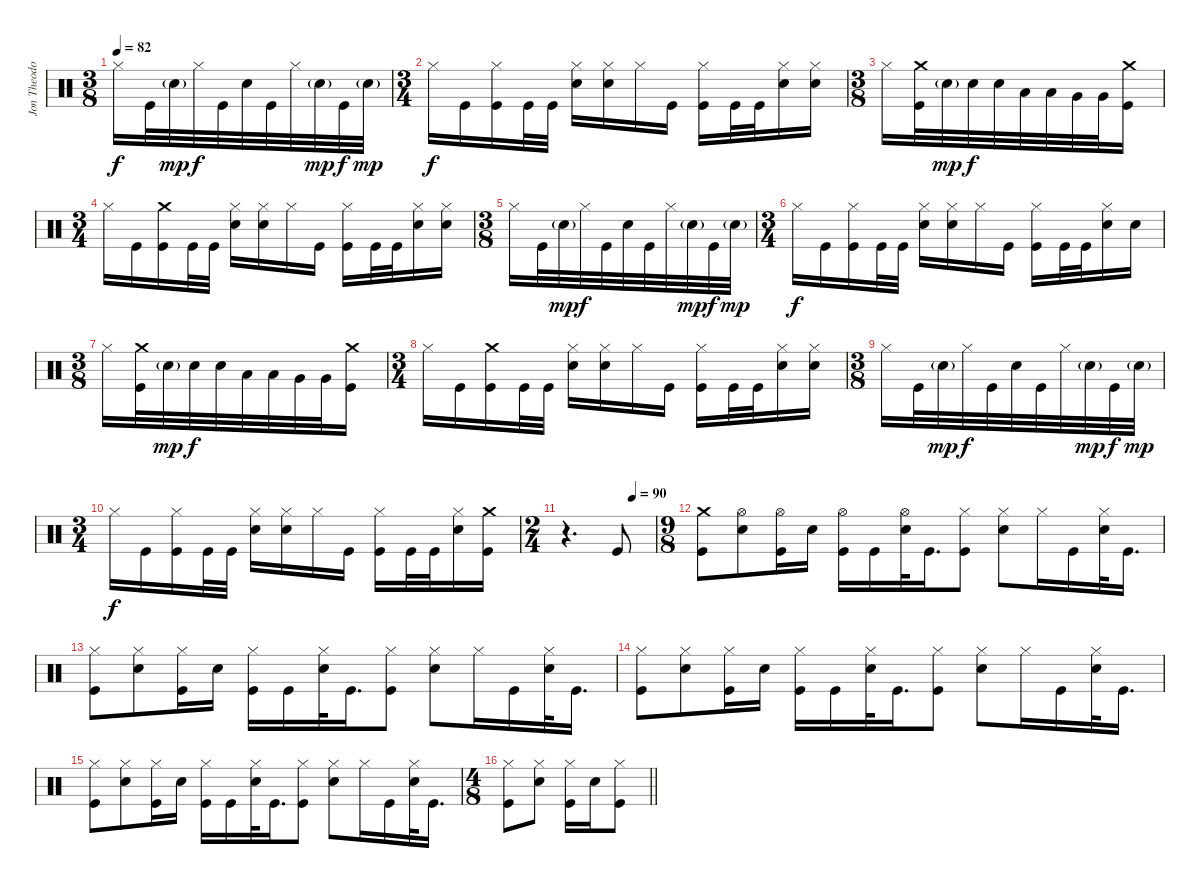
\track ("Jon Theodore" "Jon Theodo") {instrument percussion}
\staff {score}
\articulation defaults
\ts (3 8)
\tempo 82
\clef neutral
\ks c "Hi-Hat (closed)".16{dy f} "Kick (hit)".32 "Snare (hit) 2"{g}.32{dy mp} "Hi-Hat (closed)".32{dy f} "Kick (hit)".32 "Snare (hit) 2".32 "Kick (hit)".32 "Hi-Hat (closed)".32 "Snare (hit) 2"{g}.32{dy mp} "Kick (hit)".32{dy f} "Snare (hit) 2"{g}.32{dy mp}
|
\ts (3 4)
"Hi-Hat (closed)".16{dy f} "Kick (hit)".16 ("Hi-Hat (closed)" "Kick (hit)").16 "Kick (hit)".32 "Kick (hit)".32 ("Hi-Hat (closed)" "Snare (hit) 2").16 ("Hi-Hat (closed)" "Snare (hit) 2").16 "Hi-Hat (closed)".16 "Kick (hit)".16 ("Hi-Hat (closed)" "Kick (hit)").16 "Kick (hit)".32 "Kick (hit)".32 ("Hi-Hat (closed)" "Snare (hit) 2").16 ("Hi-Hat (closed)" "Snare (hit) 2").16 |
\ts (3 8)
"Hi-Hat (closed)".16 ("Crash medium (hit)" "Kick (hit)").32 "Snare (hit) 2"{g}.32{dy mp} "Snare (hit) 2".32{dy f} "Snare (hit) 2".32 "Low Tom (hit)".32 "Low Tom (hit)".32 "Very Low Tom (hit)".32 "Very Low Tom (hit)".32 ("Crash medium (hit)" "Kick (hit)").16 |
\ts (3 4)
"Hi-Hat (closed)".16 "Kick (hit)".16 ("Crash medium (hit)" "Kick (hit)").16 "Kick (hit)".32 "Kick (hit)".32 ("Hi-Hat (closed)" "Snare (hit) 2").16 ("Hi-Hat (closed)" "Snare (hit) 2").16 "Hi-Hat (closed)".16 "Kick (hit)".16 ("Hi-Hat (closed)" "Kick (hit)").16 "Kick (hit)".32 "Kick (hit)".32 ("Hi-Hat (closed)" "Snare (hit) 2").16 ("Hi-Hat (closed)" "Snare (hit) 2").16 |
\ts (3 8)
"Hi-Hat (closed)".16 "Kick (hit)".32 "Snare (hit) 2"{g}.32{dy mp} "Hi-Hat (closed)".32{dy f} "Kick (hit)".32 "Snare (hit) 2".32 "Kick (hit)".32 "Hi-Hat (closed)".32 "Snare (hit) 2"{g}.32{dy mp} "Kick (hit)".32{dy f} "Snare (hit) 2"{g}.32{dy mp} |
\ts (3 4)
"Hi-Hat (closed)".16{dy f} "Kick (hit)".16 ("Hi-Hat (closed)" "Kick (hit)").16 "Kick (hit)".32 "Kick (hit)".32 ("Hi-Hat (closed)" "Snare (hit) 2").16 ("Hi-Hat (closed)" "Snare (hit) 2").16 "Hi-Hat (closed)".16 "Kick (hit)".16 ("Hi-Hat (closed)" "Kick (hit)").16 "Kick (hit)".32 "Kick (hit)".32 ("Hi-Hat (closed)" "Snare (hit) 2").16 "Snare (hit) 2".16 |
\ts (3 8)
"Hi-Hat (closed)".16 ("Crash medium (hit)" "Kick (hit)").32 "Snare (hit) 2"{g}.32{dy mp} "Snare (hit) 2".32{dy f} "Snare (hit) 2".32 "Low Tom (hit)".32 "Low Tom (hit)".32 "Very Low Tom (hit)".32 "Very Low Tom (hit)".32 ("Crash medium (hit)" "Kick (hit)").16 |
\ts (3 4)
"Hi-Hat (closed)".16 "Kick (hit)".16 ("Crash medium (hit)" "Kick (hit)").16 "Kick (hit)".32 "Kick (hit)".32 ("Hi-Hat (closed)" "Snare (hit) 2").16 ("Hi-Hat (closed)" "Snare (hit) 2").16 "Hi-Hat (closed)".16 "Kick (hit)".16 ("Hi-Hat (closed)" "Kick (hit)").16 "Kick (hit)".32 "Kick (hit)".32 ("Hi-Hat (closed)" "Snare (hit) 2").16 ("Hi-Hat (closed)" "Snare (hit) 2").16 |
\ts (3 8)
"Hi-Hat (closed)".16 "Kick (hit)".32 "Snare (hit) 2"{g}.32{dy mp} "Hi-Hat (closed)".32{dy f} "Kick (hit)".32 "Snare (hit) 2".32 "Kick (hit)".32 "Hi-Hat (closed)".32 "Snare (hit) 2"{g}.32{dy mp} "Kick (hit)".32{dy f} "Snare (hit) 2"{g}.32{dy mp} |
\ts (3 4)
"Hi-Hat (closed)".16{dy f} "Kick (hit)".16 ("Hi-Hat (closed)" "Kick (hit)").16 "Kick (hit)".32 "Kick (hit)".32 ("Hi-Hat (closed)" "Snare (hit) 2").16 ("Hi-Hat (closed)" "Snare (hit) 2").16 "Hi-Hat (closed)".16 "Kick (hit)".16 ("Hi-Hat (closed)" "Kick (hit)").16 "Kick (hit)".32 "Kick (hit)".32 ("Hi-Hat (closed)" "Snare (hit) 2").16 ("Crash medium (hit)" "Kick (hit)").16 |
\ts (2 4)
\tempo (90 0.75)
r.4{d} "Kick (hit)".8 |
\ts (9 8)
("Crash medium (hit)" "Kick (hit)").8 ("Hi-Hat (open)" "Snare (hit) 2").8 ("Hi-Hat (open)" "Kick (hit)").16 "Snare (hit) 2".16 ("Hi-Hat (open)" "Kick (hit)").16 "Kick (hit)".16 ("Hi-Hat (open)" "Snare (hit) 2").32 "Kick (hit)".16{d} ("Hi-Hat (closed)" "Kick (hit)").8 ("Hi-Hat (closed)" "Snare (hit) 2").8 "Hi-Hat (closed)".16 "Kick (hit)".16 ("Hi-Hat (closed)" "Snare (hit) 2").32 "Kick (hit)".16{d} |
("Hi-Hat (closed)" "Kick (hit)").8 ("Hi-Hat (closed)" "Snare (hit) 2").8 ("Hi-Hat (closed)" "Kick (hit)").16 "Snare (hit) 2".16 ("Hi-Hat (closed)" "Kick (hit)").16 "Kick (hit)".16 ("Hi-Hat (closed)" "Snare (hit) 2").32 "Kick (hit)".16{d} ("Hi-Hat (closed)" "Kick (hit)").8 ("Hi-Hat (closed)" "Snare (hit) 2").8 "Hi-Hat (closed)".16 "Kick (hit)".16 ("Hi-Hat (closed)" "Snare (hit) 2").32 "Kick (hit)".16{d} |
("Hi-Hat (closed)" "Kick (hit)").8 ("Hi-Hat (closed)" "Snare (hit) 2").8 ("Hi-Hat (closed)" "Kick (hit)").16 "Snare (hit) 2".16 ("Hi-Hat (closed)" "Kick (hit)").16 "Kick (hit)".16 ("Hi-Hat (closed)" "Snare (hit) 2").32 "Kick (hit)".16{d} ("Hi-Hat (closed)" "Kick (hit)").8 ("Hi-Hat (closed)" "Snare (hit) 2").8 "Hi-Hat (closed)".16 "Kick (hit)".16 ("Hi-Hat (closed)" "Snare (hit) 2").32 "Kick (hit)".16{d} |
("Hi-Hat (closed)" "Kick (hit)").8 ("Hi-Hat (closed)" "Snare (hit) 2").8 ("Hi-Hat (closed)" "Kick (hit)").16 "Snare (hit) 2".16 ("Hi-Hat (closed)" "Kick (hit)").16 "Kick (hit)".16 ("Hi-Hat (closed)" "Snare (hit) 2").32 "Kick (hit)".16{d} ("Hi-Hat (closed)" "Kick (hit)").8 ("Hi-Hat (closed)" "Snare (hit) 2").8 "Hi-Hat (closed)".16 "Kick (hit)".16 ("Hi-Hat (closed)" "Snare (hit) 2").32 "Kick (hit)".16{d} |
\ts (4 8)
\barLineRight lightlight
("Hi-Hat (closed)" "Kick (hit)").8 ("Hi-Hat (closed)" "Snare (hit) 2").8 ("Hi-Hat (closed)" "Kick (hit)").16 "Snare (hit) 2".16 ("Hi-Hat (closed)" "Kick (hit)").8
